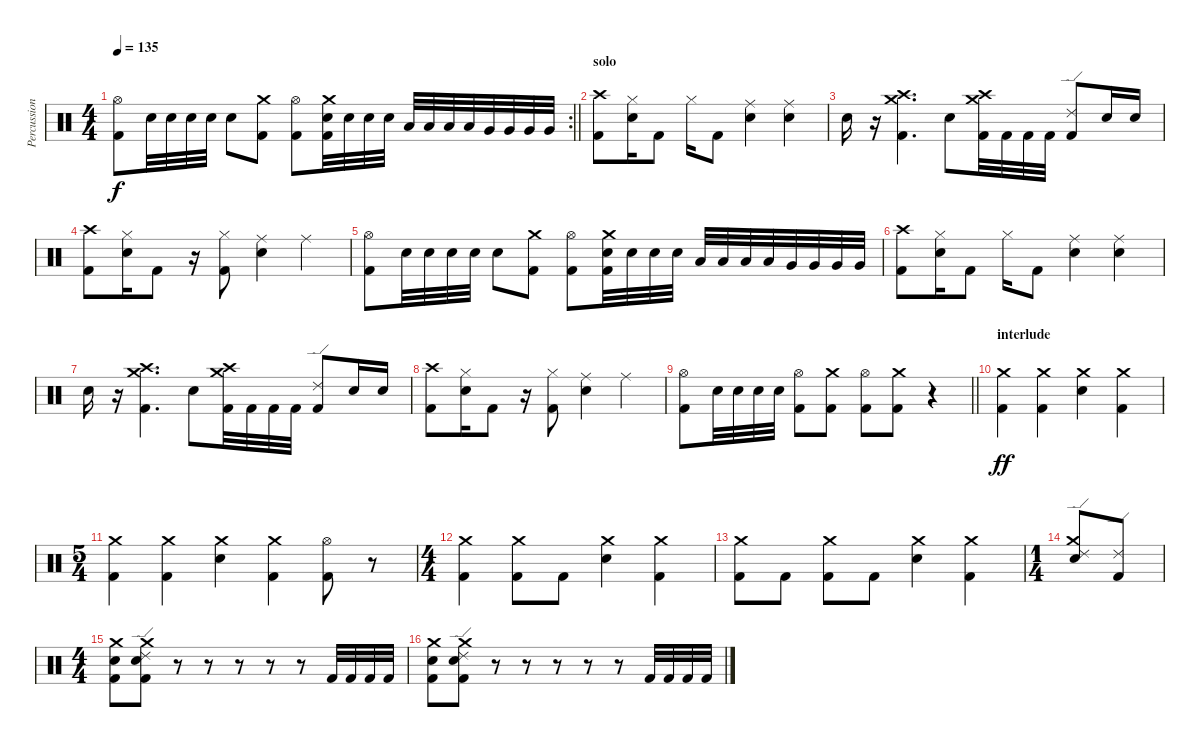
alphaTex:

\track ("Percussion" "Percussion") {instrument percussion}
\staff {score}
\articulation defaults
\rc 2
\ts (4 4)
\tempo 135
\clef neutral
\barLineRight lightlight
\ks c
("Hi-Hat (open)" "Kick (hit) 2").8{dy f} "Electric Snare (hit)".32 "Electric Snare (hit)".32 "Electric Snare (hit)".32 "Electric Snare (hit)".32 "Electric Snare (hit)".8 ("Crash medium (hit)" "Kick (hit) 2").8 ("Hi-Hat (open)" "Kick (hit) 2").8 ("Crash medium (hit)" "Electric Snare (hit)" "Kick (hit) 2").32 "Electric Snare (hit)".32 "Electric Snare (hit)".32 "Electric Snare (hit)".32 "Low Tom (hit)".32 "Low Tom (hit)".32 "Low Tom (hit)".32 "Low Tom (hit)".32 "Very Low Tom (hit)".32 "Very Low Tom (hit)".32 "Very Low Tom (hit)".32 "Very Low Tom (hit)".32 |
\section ("" "solo")
("Crash high (hit)" "Kick (hit) 2").8 ("Hi-Hat (closed)" "Electric Snare (hit)").16 "Kick (hit) 2".8 "Hi-Hat (closed)".16 "Kick (hit) 2".8 ("Ride (middle)" "Electric Snare (hit)").4 ("Ride (middle)" "Electric Snare (hit)").4 |
"Electric Snare (hit)".16 r.16 ("Crash high (hit)" "Crash medium (hit)" "Kick (hit) 2").4{d} "Electric Snare (hit)".8 ("Crash high (hit)" "Crash medium (hit)" "Kick (hit) 2").32 "Kick (hit) 2".32 "Kick (hit) 2".32 "Kick (hit) 2".32 ("Ride (edge) 2" "Kick (hit) 2").8 "Electric Snare (hit)".16 "Electric Snare (hit)".16 |
("Crash high (hit)" "Kick (hit) 2").8 ("Hi-Hat (closed)" "Electric Snare (hit)").16 "Kick (hit) 2".8 r.16 ("Hi-Hat (closed)" "Kick (hit) 2").8 ("Ride (middle)" "Electric Snare (hit)").4 "Ride (middle)".4 |
("Hi-Hat (open)" "Kick (hit) 2").8 "Electric Snare (hit)".32 "Electric Snare (hit)".32 "Electric Snare (hit)".32 "Electric Snare (hit)".32 "Electric Snare (hit)".8 ("Crash medium (hit)" "Kick (hit) 2").8 ("Hi-Hat (open)" "Kick (hit) 2").8 ("Crash medium (hit)" "Electric Snare (hit)" "Kick (hit) 2").32 "Electric Snare (hit)".32 "Electric Snare (hit)".32 "Electric Snare (hit)".32 "Low Tom (hit)".32 "Low Tom (hit)".32 "Low Tom (hit)".32 "Low Tom (hit)".32 "Very Low Tom (hit)".32 "Very Low Tom (hit)".32 "Very Low Tom (hit)".32 "Very Low Tom (hit)".32 |
("Crash high (hit)" "Kick (hit) 2").8 ("Hi-Hat (closed)" "Electric Snare (hit)").16 "Kick (hit) 2".8 "Hi-Hat (closed)".16 "Kick (hit) 2".8 ("Ride (middle)" "Electric Snare (hit)").4 ("Ride (middle)" "Electric Snare (hit)").4 |
"Electric Snare (hit)".16 r.16 ("Crash high (hit)" "Crash medium (hit)" "Kick (hit) 2").4{d} "Electric Snare (hit)".8 ("Crash high (hit)" "Crash medium (hit)" "Kick (hit) 2").32 "Kick (hit) 2".32 "Kick (hit) 2".32 "Kick (hit) 2".32 ("Ride (edge) 2" "Kick (hit) 2").8 "Electric Snare (hit)".16 "Electric Snare (hit)".16 |
("Crash high (hit)" "Kick (hit) 2").8 ("Hi-Hat (closed)" "Electric Snare (hit)").16 "Kick (hit) 2".8 r.16 ("Hi-Hat (closed)" "Kick (hit) 2").8 ("Ride (middle)" "Electric Snare (hit)").4 "Ride (middle)".4 |
\barLineRight lightlight
("Hi-Hat (open)" "Kick (hit) 2").8 "Electric Snare (hit)".32 "Electric Snare (hit)".32 "Electric Snare (hit)".32 "Electric Snare (hit)".32 ("Hi-Hat (open)" "Kick (hit) 2").8 ("Crash medium (hit)" "Kick (hit) 2").8 ("Hi-Hat (open)" "Kick (hit) 2").8 ("Crash medium (hit)" "Kick (hit) 2").8 r.4 |
\section ("" "interlude")
("Crash medium (hit)" "Kick (hit) 2").4{dy ff} ("Crash medium (hit)" "Kick (hit) 2").4 ("Crash medium (hit)" "Electric Snare (hit)").4 ("Crash medium (hit)" "Kick (hit) 2").4 |
\ts (5 4)
("Crash medium (hit)" "Kick (hit) 2").4 ("Crash medium (hit)" "Kick (hit) 2").4 ("Crash medium (hit)" "Electric Snare (hit)").4 ("Crash medium (hit)" "Kick (hit) 2").4 ("Hi-Hat (open)" "Kick (hit) 2").8 r.8 |
\ts (4 4)
("Crash medium (hit)" "Kick (hit) 2").4 ("Crash medium (hit)" "Kick (hit) 2").8 "Kick (hit) 2".8 ("Crash medium (hit)" "Electric Snare (hit)").4 ("Crash medium (hit)" "Kick (hit) 2").4 |
("Crash medium (hit)" "Kick (hit) 2").8 "Kick (hit) 2".8 ("Crash medium (hit)" "Kick (hit) 2").8 "Kick (hit) 2".8 ("Crash medium (hit)" "Electric Snare (hit)").4 ("Crash medium (hit)" "Kick (hit) 2").4 |
\ts (1 4)
("Crash medium (hit)" "Ride (edge) 2" "Electric Snare (hit)").8 ("Ride (edge) 2" "Kick (hit) 2").8 |
\ts (4 4)
("Crash medium (hit)" "Electric Snare (hit)" "Kick (hit) 2").8 ("Ride (edge) 2" "Crash medium (hit)" "Electric Snare (hit)" "Kick (hit) 2").8 r.8 r.8 r.8 r.8 r.8 "Kick (hit) 2".32 "Kick (hit) 2".32 "Kick (hit) 2".32 "Kick (hit) 2".32 |
("Crash medium (hit)" "Electric Snare (hit)" "Kick (hit) 2").8 ("Ride (edge) 2" "Crash medium (hit)" "Electric Snare (hit)" "Kick (hit) 2").8 r.8 r.8 r.8 r.8 r.8 "Kick (hit) 2".32 "Kick (hit) 2".32 "Kick (hit) 2".32 "Kick (hit) 2".32
